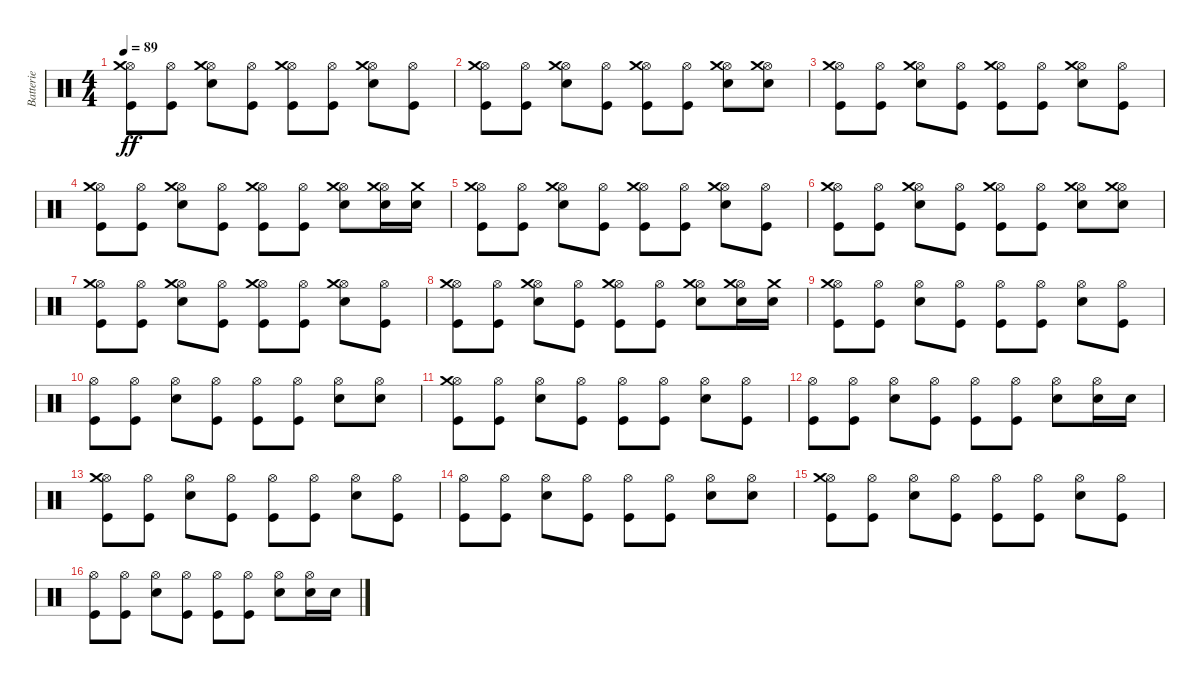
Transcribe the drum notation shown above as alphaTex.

\track ("Batterie" "Batterie") {instrument percussion}
\staff {score}
\articulation defaults
\ts (4 4)
\tempo 89
\clef neutral
\ks c
("Kick (hit)" "Hi-Hat (open)" "Crash medium (hit)").8{dy ff} ("Kick (hit)" "Hi-Hat (open)").8 ("Electric Snare (hit)" "Hi-Hat (open)" "Crash medium (hit)").8 ("Kick (hit)" "Hi-Hat (open)").8 ("Kick (hit)" "Hi-Hat (open)" "Crash medium (hit)").8 ("Kick (hit)" "Hi-Hat (open)").8 ("Electric Snare (hit)" "Hi-Hat (open)" "Crash medium (hit)").8 ("Kick (hit)" "Hi-Hat (open)").8 |
("Kick (hit)" "Hi-Hat (open)" "Crash medium (hit)").8 ("Kick (hit)" "Hi-Hat (open)").8 ("Electric Snare (hit)" "Hi-Hat (open)" "Crash medium (hit)").8 ("Kick (hit)" "Hi-Hat (open)").8 ("Kick (hit)" "Hi-Hat (open)" "Crash medium (hit)").8 ("Kick (hit)" "Hi-Hat (open)").8 ("Electric Snare (hit)" "Hi-Hat (open)" "Crash medium (hit)").8 ("Electric Snare (hit)" "Hi-Hat (open)" "Crash medium (hit)").8 |
("Kick (hit)" "Hi-Hat (open)" "Crash medium (hit)").8 ("Kick (hit)" "Hi-Hat (open)").8 ("Electric Snare (hit)" "Hi-Hat (open)" "Crash medium (hit)").8 ("Kick (hit)" "Hi-Hat (open)").8 ("Kick (hit)" "Hi-Hat (open)" "Crash medium (hit)").8 ("Kick (hit)" "Hi-Hat (open)").8 ("Electric Snare (hit)" "Hi-Hat (open)" "Crash medium (hit)").8 ("Kick (hit)" "Hi-Hat (open)").8 |
("Kick (hit)" "Hi-Hat (open)" "Crash medium (hit)").8 ("Kick (hit)" "Hi-Hat (open)").8 ("Electric Snare (hit)" "Hi-Hat (open)" "Crash medium (hit)").8 ("Kick (hit)" "Hi-Hat (open)").8 ("Kick (hit)" "Hi-Hat (open)" "Crash medium (hit)").8 ("Kick (hit)" "Hi-Hat (open)").8 ("Electric Snare (hit)" "Hi-Hat (open)" "Crash medium (hit)").8 ("Electric Snare (hit)" "Hi-Hat (open)" "Crash medium (hit)").16 ("Electric Snare (hit)" "Crash medium (hit)").16 |
("Kick (hit)" "Hi-Hat (open)" "Crash medium (hit)").8 ("Kick (hit)" "Hi-Hat (open)").8 ("Electric Snare (hit)" "Hi-Hat (open)" "Crash medium (hit)").8 ("Kick (hit)" "Hi-Hat (open)").8 ("Kick (hit)" "Hi-Hat (open)" "Crash medium (hit)").8 ("Kick (hit)" "Hi-Hat (open)").8 ("Electric Snare (hit)" "Hi-Hat (open)" "Crash medium (hit)").8 ("Kick (hit)" "Hi-Hat (open)").8 |
("Kick (hit)" "Hi-Hat (open)" "Crash medium (hit)").8 ("Kick (hit)" "Hi-Hat (open)").8 ("Electric Snare (hit)" "Hi-Hat (open)" "Crash medium (hit)").8 ("Kick (hit)" "Hi-Hat (open)").8 ("Kick (hit)" "Hi-Hat (open)" "Crash medium (hit)").8 ("Kick (hit)" "Hi-Hat (open)").8 ("Electric Snare (hit)" "Hi-Hat (open)" "Crash medium (hit)").8 ("Electric Snare (hit)" "Hi-Hat (open)" "Crash medium (hit)").8 |
("Kick (hit)" "Hi-Hat (open)" "Crash medium (hit)").8 ("Kick (hit)" "Hi-Hat (open)").8 ("Electric Snare (hit)" "Hi-Hat (open)" "Crash medium (hit)").8 ("Kick (hit)" "Hi-Hat (open)").8 ("Kick (hit)" "Hi-Hat (open)" "Crash medium (hit)").8 ("Kick (hit)" "Hi-Hat (open)").8 ("Electric Snare (hit)" "Hi-Hat (open)" "Crash medium (hit)").8 ("Kick (hit)" "Hi-Hat (open)").8 |
("Kick (hit)" "Hi-Hat (open)" "Crash medium (hit)").8 ("Kick (hit)" "Hi-Hat (open)").8 ("Electric Snare (hit)" "Hi-Hat (open)" "Crash medium (hit)").8 ("Kick (hit)" "Hi-Hat (open)").8 ("Kick (hit)" "Hi-Hat (open)" "Crash medium (hit)").8 ("Kick (hit)" "Hi-Hat (open)").8 ("Electric Snare (hit)" "Hi-Hat (open)" "Crash medium (hit)").8 ("Electric Snare (hit)" "Hi-Hat (open)" "Crash medium (hit)").16 ("Electric Snare (hit)" "Crash medium (hit)").16 |
("Kick (hit)" "Hi-Hat (open)" "Crash medium (hit)").8 ("Kick (hit)" "Hi-Hat (open)").8 ("Electric Snare (hit)" "Hi-Hat (open)").8 ("Kick (hit)" "Hi-Hat (open)").8 ("Kick (hit)" "Hi-Hat (open)").8 ("Kick (hit)" "Hi-Hat (open)").8 ("Electric Snare (hit)" "Hi-Hat (open)").8 ("Kick (hit)" "Hi-Hat (open)").8 |
("Kick (hit)" "Hi-Hat (open)").8 ("Kick (hit)" "Hi-Hat (open)").8 ("Electric Snare (hit)" "Hi-Hat (open)").8 ("Kick (hit)" "Hi-Hat (open)").8 ("Kick (hit)" "Hi-Hat (open)").8 ("Kick (hit)" "Hi-Hat (open)").8 ("Electric Snare (hit)" "Hi-Hat (open)").8 ("Electric Snare (hit)" "Hi-Hat (open)").8 |
("Kick (hit)" "Hi-Hat (open)" "Crash medium (hit)").8 ("Kick (hit)" "Hi-Hat (open)").8 ("Electric Snare (hit)" "Hi-Hat (open)").8 ("Kick (hit)" "Hi-Hat (open)").8 ("Kick (hit)" "Hi-Hat (open)").8 ("Kick (hit)" "Hi-Hat (open)").8 ("Electric Snare (hit)" "Hi-Hat (open)").8 ("Kick (hit)" "Hi-Hat (open)").8 |
("Kick (hit)" "Hi-Hat (open)").8 ("Kick (hit)" "Hi-Hat (open)").8 ("Electric Snare (hit)" "Hi-Hat (open)").8 ("Kick (hit)" "Hi-Hat (open)").8 ("Kick (hit)" "Hi-Hat (open)").8 ("Kick (hit)" "Hi-Hat (open)").8 ("Electric Snare (hit)" "Hi-Hat (open)").8 ("Electric Snare (hit)" "Hi-Hat (open)").16 "Electric Snare (hit)".16 |
("Kick (hit)" "Hi-Hat (open)" "Crash medium (hit)").8 ("Kick (hit)" "Hi-Hat (open)").8 ("Electric Snare (hit)" "Hi-Hat (open)").8 ("Kick (hit)" "Hi-Hat (open)").8 ("Kick (hit)" "Hi-Hat (open)").8 ("Kick (hit)" "Hi-Hat (open)").8 ("Electric Snare (hit)" "Hi-Hat (open)").8 ("Kick (hit)" "Hi-Hat (open)").8 |
("Kick (hit)" "Hi-Hat (open)").8 ("Kick (hit)" "Hi-Hat (open)").8 ("Electric Snare (hit)" "Hi-Hat (open)").8 ("Kick (hit)" "Hi-Hat (open)").8 ("Kick (hit)" "Hi-Hat (open)").8 ("Kick (hit)" "Hi-Hat (open)").8 ("Electric Snare (hit)" "Hi-Hat (open)").8 ("Electric Snare (hit)" "Hi-Hat (open)").8 |
("Kick (hit)" "Hi-Hat (open)" "Crash medium (hit)").8 ("Kick (hit)" "Hi-Hat (open)").8 ("Electric Snare (hit)" "Hi-Hat (open)").8 ("Kick (hit)" "Hi-Hat (open)").8 ("Kick (hit)" "Hi-Hat (open)").8 ("Kick (hit)" "Hi-Hat (open)").8 ("Electric Snare (hit)" "Hi-Hat (open)").8 ("Kick (hit)" "Hi-Hat (open)").8 |
("Kick (hit)" "Hi-Hat (open)").8 ("Kick (hit)" "Hi-Hat (open)").8 ("Electric Snare (hit)" "Hi-Hat (open)").8 ("Kick (hit)" "Hi-Hat (open)").8 ("Kick (hit)" "Hi-Hat (open)").8 ("Kick (hit)" "Hi-Hat (open)").8 ("Electric Snare (hit)" "Hi-Hat (open)").8 ("Electric Snare (hit)" "Hi-Hat (open)").16 "Electric Snare (hit)".16
